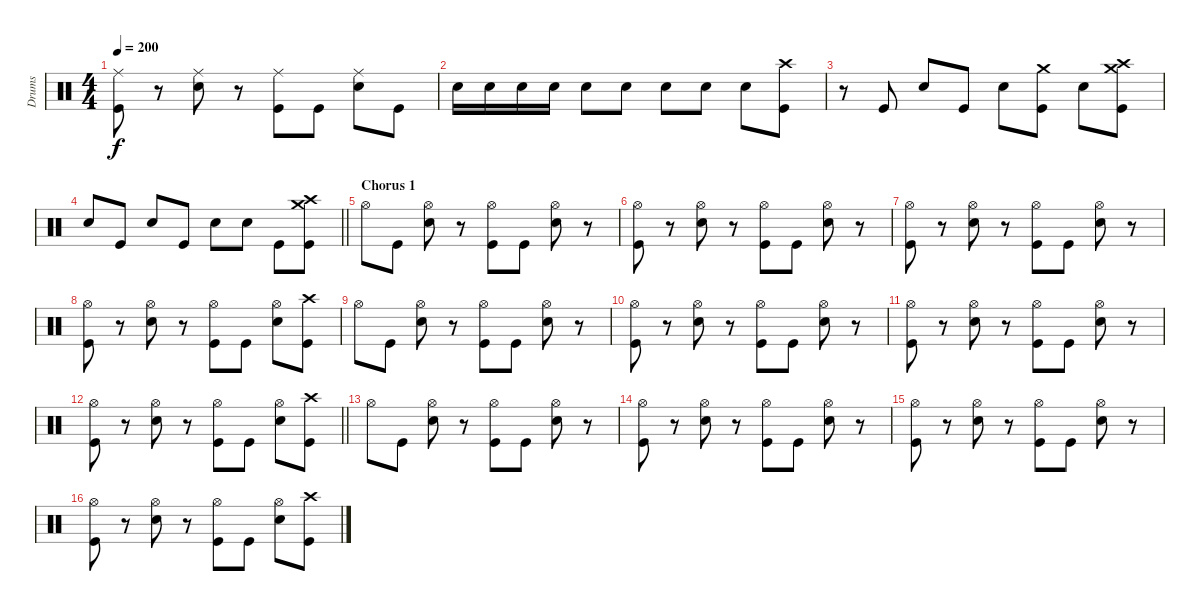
\track ("Drums" "Drums") {instrument percussion}
\staff {score}
\articulation defaults
\ts (4 4)
\tempo 200
\clef neutral
\ks c
("Ride (middle)" "Kick (hit)").8{dy f} r.8 ("Ride (middle)" "Electric Snare (hit)").8 r.8 ("Ride (middle)" "Kick (hit)").8 "Kick (hit)".8 ("Ride (middle)" "Electric Snare (hit)").8 "Kick (hit)".8 |
"Electric Snare (hit)".16 "Electric Snare (hit)".16 "Electric Snare (hit)".16 "Electric Snare (hit)".16 "Electric Snare (hit)".8 "Electric Snare (hit)".8 "Electric Snare (hit)".8 "Electric Snare (hit)".8 "Electric Snare (hit)".8 ("Crash high (hit)" "Kick (hit)").8 |
r.8 "Kick (hit)".8 "Electric Snare (hit)".8 "Kick (hit)".8 "Electric Snare (hit)".8 ("Crash medium (hit)" "Kick (hit)").8 "Electric Snare (hit)".8 ("Crash high (hit)" "Crash medium (hit)" "Kick (hit)").8 |
\barLineRight lightlight "Electric Snare (hit)".8 "Kick (hit)".8 "Electric Snare (hit)".8 "Kick (hit)".8 "Electric Snare (hit)".8 "Electric Snare (hit)".8 "Kick (hit)".8
("Crash high (hit)" "Crash medium (hit)" "Kick (hit)").8 |
\section ("" "Chorus 1")
"Hi-Hat (open)".8 "Kick (hit)".8 ("Hi-Hat (open)" "Electric Snare (hit)").8 r.8 ("Hi-Hat (open)" "Kick (hit)").8 "Kick (hit)".8 ("Hi-Hat (open)" "Electric Snare (hit)").8 r.8 |
("Hi-Hat (open)" "Kick (hit)").8 r.8 ("Hi-Hat (open)" "Electric Snare (hit)").8 r.8 ("Hi-Hat (open)" "Kick (hit)").8 "Kick (hit)".8 ("Hi-Hat (open)" "Electric Snare (hit)").8 r.8 |
("Hi-Hat (open)" "Kick (hit)").8 r.8 ("Hi-Hat (open)" "Electric Snare (hit)").8 r.8 ("Hi-Hat (open)" "Kick (hit)").8 "Kick (hit)".8 ("Hi-Hat (open)" "Electric Snare (hit)").8 r.8 |
("Hi-Hat (open)" "Kick (hit)").8 r.8 ("Hi-Hat (open)" "Electric Snare (hit)").8 r.8 ("Hi-Hat (open)" "Kick (hit)").8 "Kick (hit)".8 ("Hi-Hat (open)" "Electric Snare (hit)").8 ("Crash high (hit)" "Kick (hit)").8 |
"Hi-Hat (open)".8 "Kick (hit)".8 ("Hi-Hat (open)" "Electric Snare (hit)").8 r.8 ("Hi-Hat (open)" "Kick (hit)").8 "Kick (hit)".8 ("Hi-Hat (open)" "Electric Snare (hit)").8 r.8 |
("Hi-Hat (open)" "Kick (hit)").8 r.8 ("Hi-Hat (open)" "Electric Snare (hit)").8 r.8 ("Hi-Hat (open)" "Kick (hit)").8 "Kick (hit)".8 ("Hi-Hat (open)" "Electric Snare (hit)").8 r.8 |
("Hi-Hat (open)" "Kick (hit)").8 r.8 ("Hi-Hat (open)" "Electric Snare (hit)").8 r.8 ("Hi-Hat (open)" "Kick (hit)").8 "Kick (hit)".8 ("Hi-Hat (open)" "Electric Snare (hit)").8 r.8 |
\barLineRight lightlight
("Hi-Hat (open)" "Kick (hit)").8 r.8 ("Hi-Hat (open)" "Electric Snare (hit)").8 r.8 ("Hi-Hat (open)" "Kick (hit)").8 "Kick (hit)".8 ("Hi-Hat (open)" "Electric Snare (hit)").8 ("Crash high (hit)" "Kick (hit)").8 |
"Hi-Hat (open)".8 "Kick (hit)".8 ("Hi-Hat (open)" "Electric Snare (hit)").8 r.8 ("Hi-Hat (open)" "Kick (hit)").8 "Kick (hit)".8 ("Hi-Hat (open)" "Electric Snare (hit)").8 r.8 |
("Hi-Hat (open)" "Kick (hit)").8 r.8 ("Hi-Hat (open)" "Electric Snare (hit)").8 r.8 ("Hi-Hat (open)" "Kick (hit)").8 "Kick (hit)".8 ("Hi-Hat (open)" "Electric Snare (hit)").8 r.8 |
("Hi-Hat (open)" "Kick (hit)").8 r.8 ("Hi-Hat (open)" "Electric Snare (hit)").8 r.8 ("Hi-Hat (open)" "Kick (hit)").8 "Kick (hit)".8 ("Hi-Hat (open)" "Electric Snare (hit)").8 r.8 |
("Hi-Hat (open)" "Kick (hit)").8 r.8 ("Hi-Hat (open)" "Electric Snare (hit)").8 r.8 ("Hi-Hat (open)" "Kick (hit)").8 "Kick (hit)".8 ("Hi-Hat (open)" "Electric Snare (hit)").8 ("Crash high (hit)" "Kick (hit)").8
